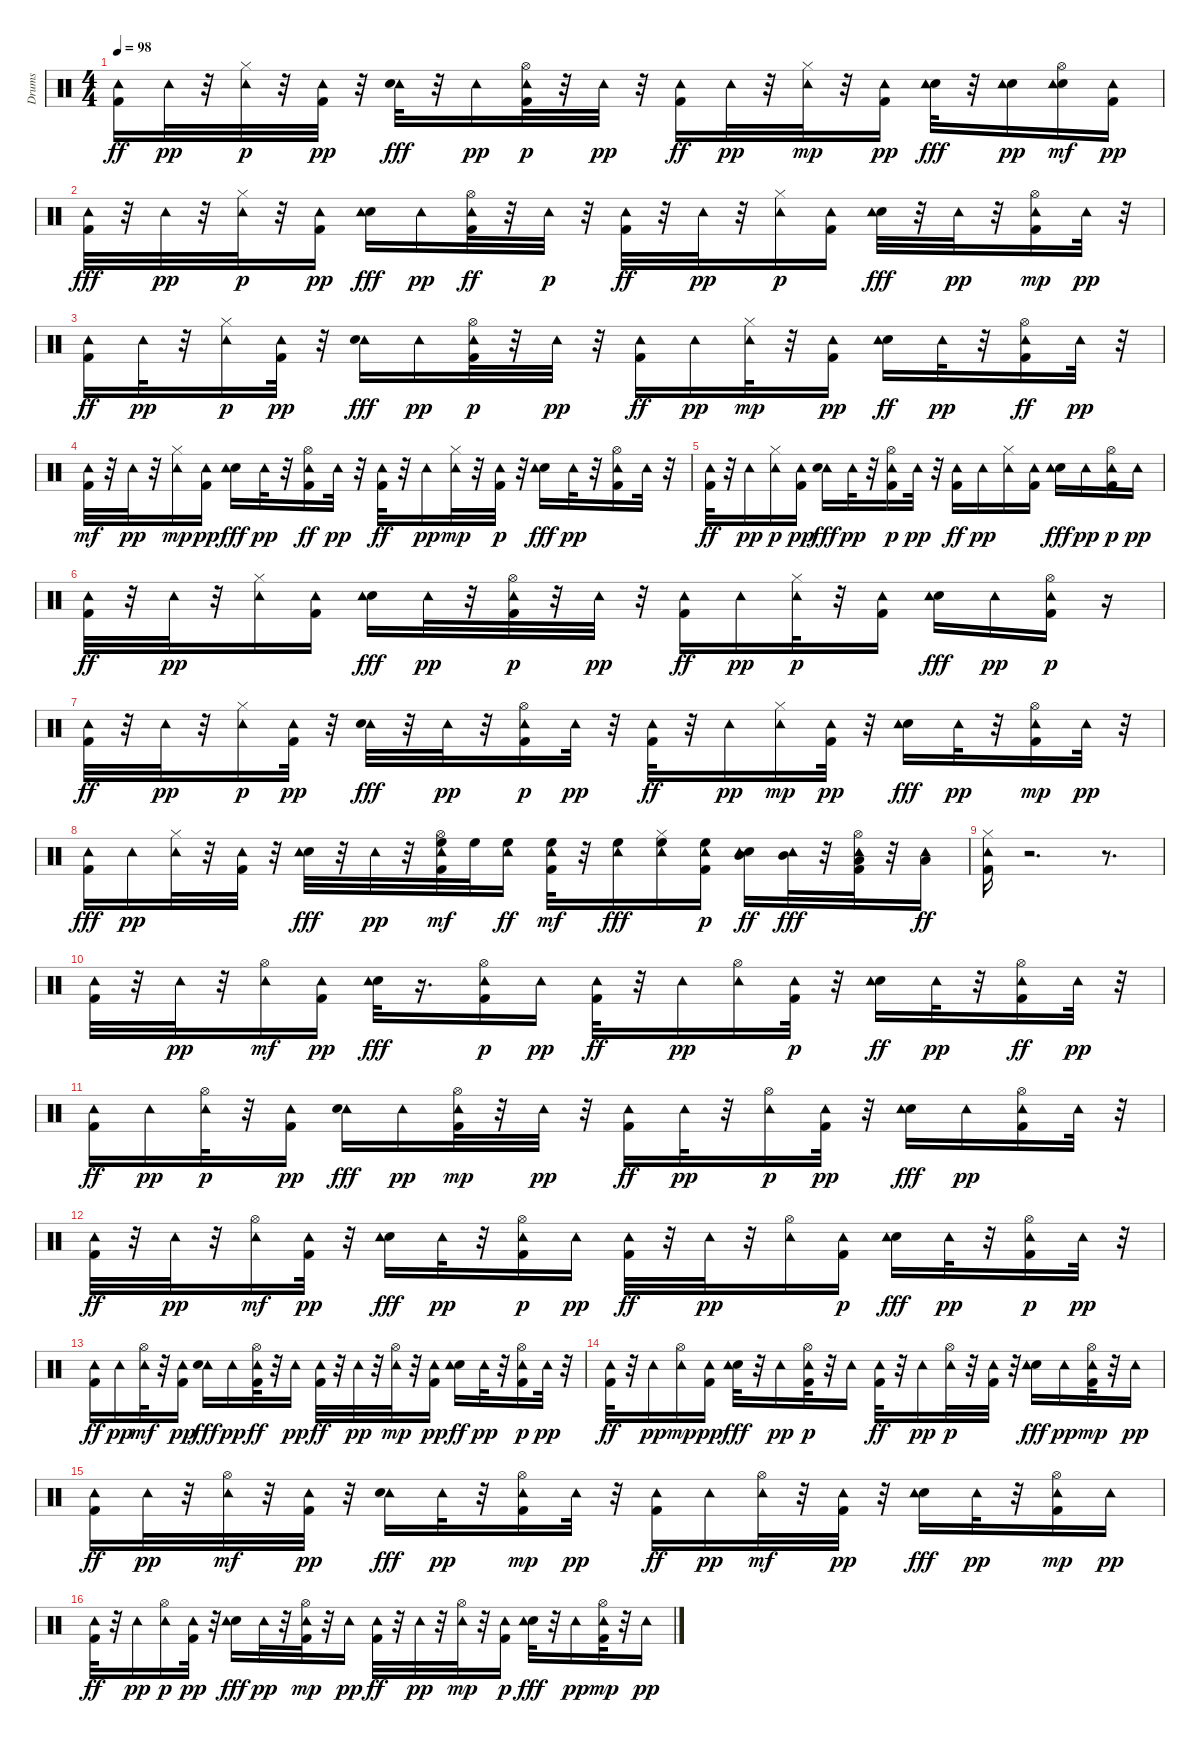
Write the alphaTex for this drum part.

\track ("Drums" "Drums") {instrument percussion}
\staff {score}
\articulation defaults
\ts (4 4)
\tempo 98
\clef neutral
\ks c
("Tambourine (hit)" "Kick (hit) 2").16{dy ff} "Tambourine (hit)".32{dy pp} r.32 ("Hi-Hat (closed)" "Tambourine (hit)").32{dy p} r.32 ("Kick (hit) 2" "Tambourine (hit)").32{dy pp} r.32 ("Tambourine (hit)" "Snare (hit) 2").32{dy fff} r.32 "Tambourine (hit)".16{dy pp} ("Kick (hit) 2" "Tambourine (hit)" "Hi-Hat (open)").32{dy p} r.32 "Tambourine (hit)".32{dy pp} r.32 ("Tambourine (hit)" "Kick (hit) 2").16{dy ff} "Tambourine (hit)".32{dy pp} r.32 ("Hi-Hat (closed)" "Tambourine (hit)").32{dy mp} r.32 ("Kick (hit) 2" "Tambourine (hit)").16{dy pp} ("Snare (hit) 2" "Tambourine (hit)").32{dy fff} r.32 ("Snare (hit) 2" "Tambourine (hit)").16{dy pp} ("Snare (hit) 2" "Tambourine (hit)" "Hi-Hat (open)").16{dy mf} ("Kick (hit) 2" "Tambourine (hit)").16{dy pp} |
("Tambourine (hit)" "Kick (hit) 2").32{dy fff} r.32 "Tambourine (hit)".32{dy pp} r.32 ("Hi-Hat (closed)" "Tambourine (hit)").32{dy p} r.32 ("Kick (hit) 2" "Tambourine (hit)").16{dy pp} ("Snare (hit) 2" "Tambourine (hit)").16{dy fff} "Tambourine (hit)".16{dy pp} ("Kick (hit) 2" "Tambourine (hit)" "Hi-Hat (open)").32{dy ff} r.32 "Tambourine (hit)".32{dy p} r.32 ("Tambourine (hit)" "Kick (hit) 2").32{dy ff} r.32 "Tambourine (hit)".32{dy pp} r.32 ("Hi-Hat (closed)" "Tambourine (hit)").16{dy p} ("Kick (hit) 2" "Tambourine (hit)").16 ("Snare (hit) 2" "Tambourine (hit)").32{dy fff} r.32 "Tambourine (hit)".32{dy pp} r.32 ("Kick (hit) 2" "Tambourine (hit)" "Hi-Hat (open)").16{dy mp} "Tambourine (hit)".32{dy pp} r.32 |
("Tambourine (hit)" "Kick (hit) 2").16{dy ff} "Tambourine (hit)".32{dy pp} r.32 ("Hi-Hat (closed)" "Tambourine (hit)").16{dy p} ("Kick (hit) 2" "Tambourine (hit)").32{dy pp} r.32 ("Tambourine (hit)" "Snare (hit) 2").16{dy fff} "Tambourine (hit)".16{dy pp} ("Kick (hit) 2" "Tambourine (hit)" "Hi-Hat (open)").32{dy p} r.32 "Tambourine (hit)".32{dy pp} r.32 ("Tambourine (hit)" "Kick (hit) 2").16{dy ff} "Tambourine (hit)".16{dy pp} ("Hi-Hat (closed)" "Tambourine (hit)").32{dy mp} r.32 ("Kick (hit) 2" "Tambourine (hit)").16{dy pp} ("Snare (hit) 2" "Tambourine (hit)").16{dy ff} "Tambourine (hit)".32{dy pp} r.32 ("Kick (hit) 2" "Tambourine (hit)" "Hi-Hat (open)").16{dy ff} "Tambourine (hit)".32{dy pp} r.32 |
("Tambourine (hit)" "Kick (hit) 2").32{dy mf} r.32 "Tambourine (hit)".32{dy pp} r.32 ("Hi-Hat (closed)" "Tambourine (hit)").16{dy mp} ("Kick (hit) 2" "Tambourine (hit)").16{dy pp} ("Snare (hit) 2" "Tambourine (hit)").16{dy fff} "Tambourine (hit)".32{dy pp} r.32 ("Kick (hit) 2" "Tambourine (hit)" "Hi-Hat (open)").16{dy ff} "Tambourine (hit)".32{dy pp} r.32 ("Tambourine (hit)" "Kick (hit) 2").32{dy ff} r.32 "Tambourine (hit)".16{dy pp} ("Hi-Hat (closed)" "Tambourine (hit)").32{dy mp} r.32 ("Kick (hit) 2" "Tambourine (hit)").32{dy p} r.32 ("Snare (hit) 2" "Tambourine (hit)").16{dy fff} "Tambourine (hit)".32{dy pp} r.32 ("Kick (hit) 2" "Tambourine (hit)" "Hi-Hat (open)").16 "Tambourine (hit)".32 r.32 |
("Tambourine (hit)" "Kick (hit) 2").32{dy ff} r.32 "Tambourine (hit)".16{dy pp} ("Hi-Hat (closed)" "Tambourine (hit)").16{dy p} ("Kick (hit) 2" "Tambourine (hit)").16{dy pp} ("Tambourine (hit)" "Snare (hit) 2").16{dy fff} "Tambourine (hit)".32{dy pp} r.32 ("Kick (hit) 2" "Tambourine (hit)" "Hi-Hat (open)").16{dy p} "Tambourine (hit)".32{dy pp} r.32 ("Tambourine (hit)" "Kick (hit) 2").16{dy ff} "Tambourine (hit)".16{dy pp} ("Hi-Hat (closed)" "Tambourine (hit)").16 ("Kick (hit) 2" "Tambourine (hit)").16 ("Snare (hit) 2" "Tambourine (hit)").16{dy fff} "Tambourine (hit)".16{dy pp} ("Kick (hit) 2" "Tambourine (hit)" "Hi-Hat (open)").16{dy p} "Tambourine (hit)".16{dy pp} |
("Tambourine (hit)" "Kick (hit) 2").32{dy ff} r.32 "Tambourine (hit)".32{dy pp} r.32 ("Hi-Hat (closed)" "Tambourine (hit)").16 ("Kick (hit) 2" "Tambourine (hit)").16 ("Snare (hit) 2" "Tambourine (hit)").16{dy fff} "Tambourine (hit)".32{dy pp} r.32 ("Kick (hit) 2" "Tambourine (hit)" "Hi-Hat (open)").32{dy p} r.32 "Tambourine (hit)".32{dy pp} r.32 ("Tambourine (hit)" "Kick (hit) 2").16{dy ff} "Tambourine (hit)".16{dy pp} ("Hi-Hat (closed)" "Tambourine (hit)").32{dy p} r.32 ("Kick (hit) 2" "Tambourine (hit)").16 ("Snare (hit) 2" "Tambourine (hit)").16{dy fff} "Tambourine (hit)".16{dy pp} ("Kick (hit) 2" "Hi-Hat (open)" "Tambourine (hit)").16{dy p} r.16 |
("Tambourine (hit)" "Kick (hit) 2").32{dy ff} r.32 "Tambourine (hit)".32{dy pp} r.32 ("Hi-Hat (closed)" "Tambourine (hit)").16{dy p} ("Kick (hit) 2" "Tambourine (hit)").32{dy pp} r.32 ("Tambourine (hit)" "Snare (hit) 2").32{dy fff} r.32 "Tambourine (hit)".32{dy pp} r.32 ("Kick (hit) 2" "Tambourine (hit)" "Hi-Hat (open)").16{dy p} "Tambourine (hit)".32{dy pp} r.32 ("Tambourine (hit)" "Kick (hit) 2").32{dy ff} r.32 "Tambourine (hit)".16{dy pp} ("Hi-Hat (closed)" "Tambourine (hit)").16{dy mp} ("Kick (hit) 2" "Tambourine (hit)").32{dy pp} r.32 ("Snare (hit) 2" "Tambourine (hit)").16{dy fff} "Tambourine (hit)".32{dy pp} r.32 ("Kick (hit) 2" "Hi-Hat (open)" "Tambourine (hit)").16{dy mp} "Tambourine (hit)".32{dy pp} r.32 |
("Tambourine (hit)" "Kick (hit) 2").16{dy fff} "Tambourine (hit)".16{dy pp} ("Hi-Hat (closed)" "Tambourine (hit)").32 r.32 ("Kick (hit) 2" "Tambourine (hit)").32 r.32 ("Snare (hit) 2" "Tambourine (hit)").32{dy fff} r.32 "Tambourine (hit)".32{dy pp} r.32 ("Kick (hit) 2" "Tambourine (hit)" "Hi-Hat (open)" "High Floor Tom (hit)").32{dy mf} "High Floor Tom (hit)".32 ("Tambourine (hit)" "High Floor Tom (hit)").16{dy ff} ("Tambourine (hit)" "Kick (hit) 2" "High Floor Tom (hit)").32{dy mf} r.32 ("Tambourine (hit)" "High Floor Tom (hit)").16{dy fff} ("Hi-Hat (closed)" "Tambourine (hit)" "High Floor Tom (hit)").16 ("Kick (hit) 2" "Tambourine (hit)" "High Floor Tom (hit)").16{dy p} ("Snare (hit) 2" "Tambourine (hit)" "Mid Tom (hit)").16{dy ff} ("Tambourine (hit)" "Mid Tom (hit)").32{dy fff} r.32 ("Kick (hit) 2" "Tambourine (hit)" "Hi-Hat (open)" "Low Floor Tom (hit)").32 r.32 ("Tambourine (hit)" "Low Floor Tom (hit)").16{dy ff} |
("Tambourine (hit)" "Hi-Hat (closed)" "Kick (hit) 2").16 r.2{d} r.8{d} |
("Tambourine (hit)" "Kick (hit) 2").32 r.32 "Tambourine (hit)".32{dy pp} r.32 ("Tambourine (hit)" "Hi-Hat (open)").16{dy mf} ("Kick (hit) 2" "Tambourine (hit)").16{dy pp} ("Electric Snare (hit)" "Tambourine (hit)").32{dy fff} r.16{d} ("Kick (hit) 2" "Tambourine (hit)" "Hi-Hat (open)").16{dy p} "Tambourine (hit)".16{dy pp} ("Tambourine (hit)" "Kick (hit) 2").32{dy ff} r.32 "Tambourine (hit)".16{dy pp} ("Hi-Hat (open)" "Tambourine (hit)").16 ("Kick (hit) 2" "Tambourine (hit)").32{dy p} r.32 ("Electric Snare (hit)" "Tambourine (hit)").16{dy ff} "Tambourine (hit)".32{dy pp} r.32 ("Kick (hit) 2" "Tambourine (hit)" "Hi-Hat (open)").16{dy ff} "Tambourine (hit)".32{dy pp} r.32 |
("Tambourine (hit)" "Kick (hit) 2").16{dy ff} "Tambourine (hit)".16{dy pp} ("Tambourine (hit)" "Hi-Hat (open)").32{dy p} r.32 ("Kick (hit) 2" "Tambourine (hit)").16{dy pp} ("Tambourine (hit)" "Electric Snare (hit)").16{dy fff} "Tambourine (hit)".16{dy pp} ("Kick (hit) 2" "Hi-Hat (open)" "Tambourine (hit)").32{dy mp} r.32 "Tambourine (hit)".32{dy pp} r.32 ("Tambourine (hit)" "Kick (hit) 2").16{dy ff} "Tambourine (hit)".32{dy pp} r.32 ("Tambourine (hit)" "Hi-Hat (open)").16{dy p} ("Kick (hit) 2" "Tambourine (hit)").32{dy pp} r.32 ("Electric Snare (hit)" "Tambourine (hit)").16{dy fff} "Tambourine (hit)".16{dy pp} ("Kick (hit) 2" "Hi-Hat (open)" "Tambourine (hit)").16 "Tambourine (hit)".32 r.32 |
("Tambourine (hit)" "Kick (hit) 2").32{dy ff} r.32 "Tambourine (hit)".32{dy pp} r.32 ("Tambourine (hit)" "Hi-Hat (open)").16{dy mf} ("Kick (hit) 2" "Tambourine (hit)").32{dy pp} r.32 ("Electric Snare (hit)" "Tambourine (hit)").16{dy fff} "Tambourine (hit)".32{dy pp} r.32 ("Kick (hit) 2" "Tambourine (hit)" "Hi-Hat (open)").16{dy p} "Tambourine (hit)".16{dy pp} ("Tambourine (hit)" "Kick (hit) 2").32{dy ff} r.32 "Tambourine (hit)".32{dy pp} r.32 ("Hi-Hat (open)" "Tambourine (hit)").16 ("Kick (hit) 2" "Tambourine (hit)").16{dy p} ("Electric Snare (hit)" "Tambourine (hit)").16{dy fff} "Tambourine (hit)".32{dy pp} r.32 ("Kick (hit) 2" "Tambourine (hit)" "Hi-Hat (open)").16{dy p} "Tambourine (hit)".32{dy pp} r.32 |
("Tambourine (hit)" "Kick (hit) 2").16{dy ff} "Tambourine (hit)".16{dy pp} ("Tambourine (hit)" "Hi-Hat (open)").32{dy mf} r.32 ("Kick (hit) 2" "Tambourine (hit)").16{dy pp} ("Tambourine (hit)" "Electric Snare (hit)").16{dy fff} "Tambourine (hit)".16{dy pp} ("Kick (hit) 2" "Tambourine (hit)" "Hi-Hat (open)").32{dy ff} r.32 "Tambourine (hit)".16{dy pp} ("Tambourine (hit)" "Kick (hit) 2").32{dy ff} r.32 "Tambourine (hit)".32{dy pp} r.32 ("Tambourine (hit)" "Hi-Hat (open)").32{dy mp} r.32 ("Kick (hit) 2" "Tambourine (hit)").16{dy pp} ("Electric Snare (hit)" "Tambourine (hit)").16{dy ff} "Tambourine (hit)".32{dy pp} r.32 ("Kick (hit) 2" "Tambourine (hit)" "Hi-Hat (open)").16{dy p} "Tambourine (hit)".32{dy pp} r.32 |
("Tambourine (hit)" "Kick (hit) 2").32{dy ff} r.32 "Tambourine (hit)".16{dy pp} ("Tambourine (hit)" "Hi-Hat (open)").16{dy mp} ("Kick (hit) 2" "Tambourine (hit)").16{dy pp} ("Electric Snare (hit)" "Tambourine (hit)").32{dy fff} r.32 "Tambourine (hit)".16{dy pp} ("Kick (hit) 2" "Tambourine (hit)" "Hi-Hat (open)").32{dy p} r.32 "Tambourine (hit)".16 ("Tambourine (hit)" "Kick (hit) 2").32{dy ff} r.32 "Tambourine (hit)".16{dy pp} ("Hi-Hat (open)" "Tambourine (hit)").32{dy p} r.32 ("Kick (hit) 2" "Tambourine (hit)").32 r.32 ("Electric Snare (hit)" "Tambourine (hit)").16{dy fff} "Tambourine (hit)".16{dy pp} ("Kick (hit) 2" "Hi-Hat (open)" "Tambourine (hit)").32{dy mp} r.32 "Tambourine (hit)".16{dy pp} |
("Tambourine (hit)" "Kick (hit) 2").16{dy ff} "Tambourine (hit)".32{dy pp} r.32 ("Tambourine (hit)" "Hi-Hat (open)").32{dy mf} r.32 ("Kick (hit) 2" "Tambourine (hit)").32{dy pp} r.32 ("Tambourine (hit)" "Electric Snare (hit)").16{dy fff} "Tambourine (hit)".32{dy pp} r.32 ("Kick (hit) 2" "Tambourine (hit)" "Hi-Hat (open)").16{dy mp} "Tambourine (hit)".32{dy pp} r.32 ("Tambourine (hit)" "Kick (hit) 2").16{dy ff} "Tambourine (hit)".16{dy pp} ("Tambourine (hit)" "Hi-Hat (open)").32{dy mf} r.32 ("Kick (hit) 2" "Tambourine (hit)").32{dy pp} r.32 ("Electric Snare (hit)" "Tambourine (hit)").16{dy fff} "Tambourine (hit)".32{dy pp} r.32 ("Kick (hit) 2" "Hi-Hat (open)" "Tambourine (hit)").16{dy mp} "Tambourine (hit)".16{dy pp} |
("Tambourine (hit)" "Kick (hit) 2").32{dy ff} r.32 "Tambourine (hit)".16{dy pp} ("Hi-Hat (open)" "Tambourine (hit)").16{dy p} ("Kick (hit) 2" "Tambourine (hit)").32{dy pp} r.32 ("Electric Snare (hit)" "Tambourine (hit)").16{dy fff} "Tambourine (hit)".32{dy pp} r.32 ("Kick (hit) 2" "Tambourine (hit)" "Hi-Hat (open)").32{dy mp} r.32 "Tambourine (hit)".16{dy pp} ("Tambourine (hit)" "Kick (hit) 2").32{dy ff} r.32 "Tambourine (hit)".32{dy pp} r.32 ("Hi-Hat (open)" "Tambourine (hit)").32{dy mp} r.32 ("Kick (hit) 2" "Tambourine (hit)").16{dy p} ("Electric Snare (hit)" "Tambourine (hit)").32{dy fff} r.32 "Tambourine (hit)".16{dy pp} ("Kick (hit) 2" "Tambourine (hit)" "Hi-Hat (open)").32{dy mp} r.32 "Tambourine (hit)".16{dy pp}
